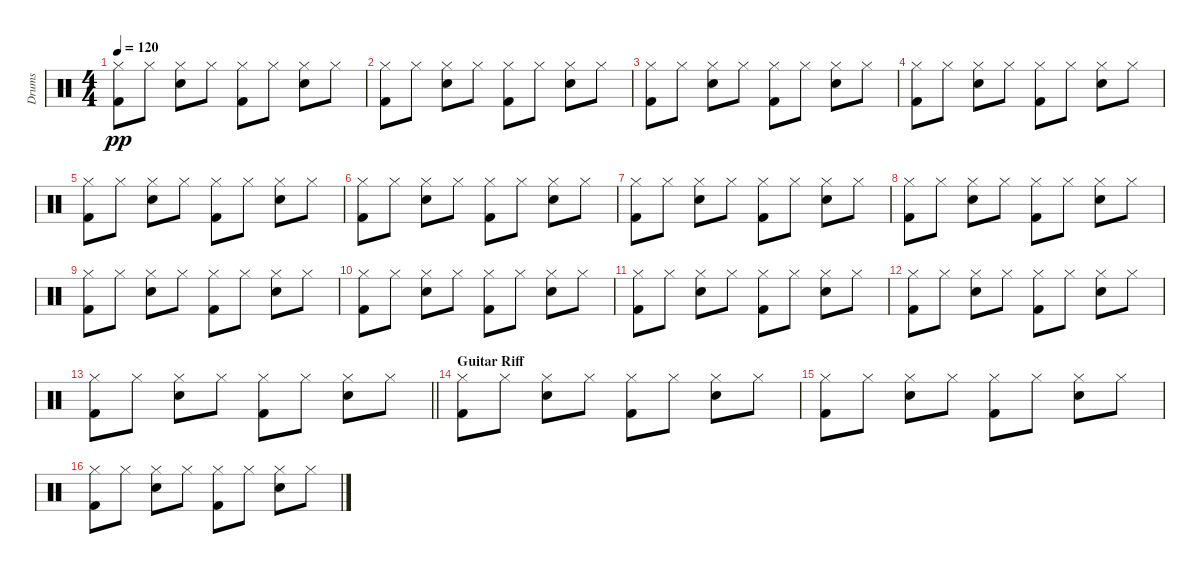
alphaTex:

\track ("Drums" "Drums") {instrument percussion}
\staff {score}
\articulation defaults
\ts (4 4)
\tempo 120
\clef neutral
\ks c
("Hi-Hat (closed)" "Kick (hit) 2").8{dy pp} "Hi-Hat (closed)".8 ("Hi-Hat (closed)" "Electric Snare (hit)").8 "Hi-Hat (closed)".8 ("Hi-Hat (closed)" "Kick (hit) 2").8 "Hi-Hat (closed)".8 ("Hi-Hat (closed)" "Electric Snare (hit)").8 "Hi-Hat (closed)".8 |
("Hi-Hat (closed)" "Kick (hit) 2").8 "Hi-Hat (closed)".8 ("Hi-Hat (closed)" "Electric Snare (hit)").8 "Hi-Hat (closed)".8 ("Hi-Hat (closed)" "Kick (hit) 2").8 "Hi-Hat (closed)".8 ("Hi-Hat (closed)" "Electric Snare (hit)").8 "Hi-Hat (closed)".8 |
("Hi-Hat (closed)" "Kick (hit) 2").8 "Hi-Hat (closed)".8 ("Hi-Hat (closed)" "Electric Snare (hit)").8 "Hi-Hat (closed)".8 ("Hi-Hat (closed)" "Kick (hit) 2").8 "Hi-Hat (closed)".8 ("Hi-Hat (closed)" "Electric Snare (hit)").8 "Hi-Hat (closed)".8 |
("Hi-Hat (closed)" "Kick (hit) 2").8 "Hi-Hat (closed)".8 ("Hi-Hat (closed)" "Electric Snare (hit)").8 "Hi-Hat (closed)".8 ("Hi-Hat (closed)" "Kick (hit) 2").8 "Hi-Hat (closed)".8 ("Hi-Hat (closed)" "Electric Snare (hit)").8 "Hi-Hat (closed)".8 |
("Hi-Hat (closed)" "Kick (hit) 2").8 "Hi-Hat (closed)".8 ("Hi-Hat (closed)" "Electric Snare (hit)").8 "Hi-Hat (closed)".8 ("Hi-Hat (closed)" "Kick (hit) 2").8 "Hi-Hat (closed)".8 ("Hi-Hat (closed)" "Electric Snare (hit)").8 "Hi-Hat (closed)".8 |
("Hi-Hat (closed)" "Kick (hit) 2").8 "Hi-Hat (closed)".8 ("Hi-Hat (closed)" "Electric Snare (hit)").8 "Hi-Hat (closed)".8 ("Hi-Hat (closed)" "Kick (hit) 2").8 "Hi-Hat (closed)".8 ("Hi-Hat (closed)" "Electric Snare (hit)").8 "Hi-Hat (closed)".8 |
("Hi-Hat (closed)" "Kick (hit) 2").8 "Hi-Hat (closed)".8 ("Hi-Hat (closed)" "Electric Snare (hit)").8 "Hi-Hat (closed)".8 ("Hi-Hat (closed)" "Kick (hit) 2").8 "Hi-Hat (closed)".8 ("Hi-Hat (closed)" "Electric Snare (hit)").8 "Hi-Hat (closed)".8 |
("Hi-Hat (closed)" "Kick (hit) 2").8 "Hi-Hat (closed)".8 ("Hi-Hat (closed)" "Electric Snare (hit)").8 "Hi-Hat (closed)".8 ("Hi-Hat (closed)" "Kick (hit) 2").8 "Hi-Hat (closed)".8 ("Hi-Hat (closed)" "Electric Snare (hit)").8 "Hi-Hat (closed)".8 |
("Hi-Hat (closed)" "Kick (hit) 2").8 "Hi-Hat (closed)".8 ("Hi-Hat (closed)" "Electric Snare (hit)").8 "Hi-Hat (closed)".8 ("Hi-Hat (closed)" "Kick (hit) 2").8 "Hi-Hat (closed)".8 ("Hi-Hat (closed)" "Electric Snare (hit)").8 "Hi-Hat (closed)".8 |
("Hi-Hat (closed)" "Kick (hit) 2").8 "Hi-Hat (closed)".8 ("Hi-Hat (closed)" "Electric Snare (hit)").8 "Hi-Hat (closed)".8 ("Hi-Hat (closed)" "Kick (hit) 2").8 "Hi-Hat (closed)".8 ("Hi-Hat (closed)" "Electric Snare (hit)").8 "Hi-Hat (closed)".8 |
("Hi-Hat (closed)" "Kick (hit) 2").8 "Hi-Hat (closed)".8 ("Hi-Hat (closed)" "Electric Snare (hit)").8 "Hi-Hat (closed)".8 ("Hi-Hat (closed)" "Kick (hit) 2").8 "Hi-Hat (closed)".8 ("Hi-Hat (closed)" "Electric Snare (hit)").8 "Hi-Hat (closed)".8 |
("Hi-Hat (closed)" "Kick (hit) 2").8 "Hi-Hat (closed)".8 ("Hi-Hat (closed)" "Electric Snare (hit)").8 "Hi-Hat (closed)".8 ("Hi-Hat (closed)" "Kick (hit) 2").8 "Hi-Hat (closed)".8 ("Hi-Hat (closed)" "Electric Snare (hit)").8 "Hi-Hat (closed)".8 |
\barLineRight lightlight
("Hi-Hat (closed)" "Kick (hit) 2").8 "Hi-Hat (closed)".8 ("Hi-Hat (closed)" "Electric Snare (hit)").8 "Hi-Hat (closed)".8 ("Hi-Hat (closed)" "Kick (hit) 2").8 "Hi-Hat (closed)".8 ("Hi-Hat (closed)" "Electric Snare (hit)").8 "Hi-Hat (closed)".8 |
\section ("" "Guitar Riff")
("Hi-Hat (closed)" "Kick (hit) 2").8 "Hi-Hat (closed)".8 ("Hi-Hat (closed)" "Electric Snare (hit)").8 "Hi-Hat (closed)".8 ("Hi-Hat (closed)" "Kick (hit) 2").8 "Hi-Hat (closed)".8 ("Hi-Hat (closed)" "Electric Snare (hit)").8 "Hi-Hat (closed)".8 |
("Hi-Hat (closed)" "Kick (hit) 2").8 "Hi-Hat (closed)".8 ("Hi-Hat (closed)" "Electric Snare (hit)").8 "Hi-Hat (closed)".8 ("Hi-Hat (closed)" "Kick (hit) 2").8 "Hi-Hat (closed)".8 ("Hi-Hat (closed)" "Electric Snare (hit)").8 "Hi-Hat (closed)".8 |
("Hi-Hat (closed)" "Kick (hit) 2").8 "Hi-Hat (closed)".8 ("Hi-Hat (closed)" "Electric Snare (hit)").8 "Hi-Hat (closed)".8 ("Hi-Hat (closed)" "Kick (hit) 2").8 "Hi-Hat (closed)".8 ("Hi-Hat (closed)" "Electric Snare (hit)").8 "Hi-Hat (closed)".8
